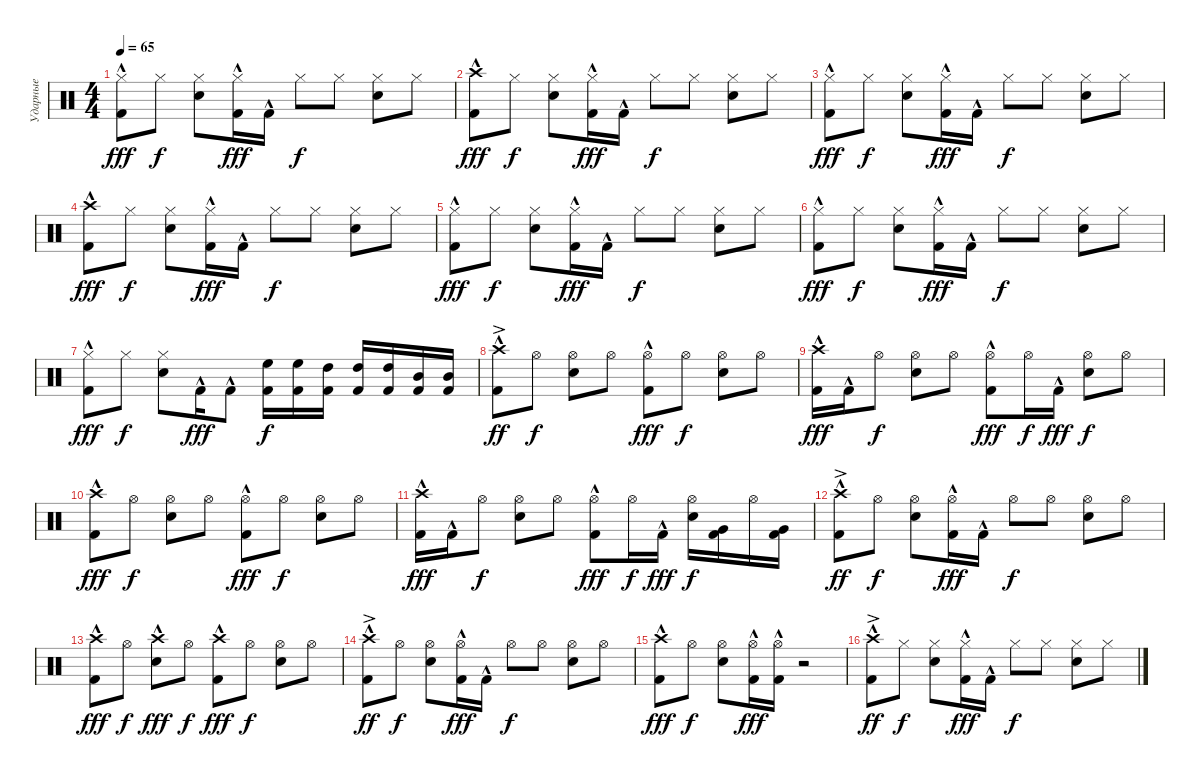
\track ("Ударные" "Ударные") {instrument percussion}
\staff {score}
\articulation defaults
\ts (4 4)
\tempo 65
\clef neutral
\ks c
("Kick (hit) 2"{hac} "Hi-Hat (closed)").8{dy fff} "Hi-Hat (closed)".8{dy f} ("Snare (hit) 2" "Hi-Hat (closed)").8 ("Kick (hit) 2"{hac} "Hi-Hat (closed)").16{dy fff} "Kick (hit) 2"{hac}.16 "Hi-Hat (closed)".8{dy f} "Hi-Hat (closed)".8 ("Snare (hit) 2" "Hi-Hat (closed)").8 "Hi-Hat (closed)".8 |
("Kick (hit) 2"{hac} "Crash high (hit)").8{dy fff} "Hi-Hat (closed)".8{dy f} ("Snare (hit) 2" "Hi-Hat (closed)").8 ("Kick (hit) 2"{hac} "Hi-Hat (closed)").16{dy fff} "Kick (hit) 2"{hac}.16 "Hi-Hat (closed)".8{dy f} "Hi-Hat (closed)".8 ("Snare (hit) 2" "Hi-Hat (closed)").8 "Hi-Hat (closed)".8 |
("Kick (hit) 2"{hac} "Hi-Hat (closed)").8{dy fff} "Hi-Hat (closed)".8{dy f} ("Snare (hit) 2" "Hi-Hat (closed)").8 ("Kick (hit) 2"{hac} "Hi-Hat (closed)").16{dy fff} "Kick (hit) 2"{hac}.16 "Hi-Hat (closed)".8{dy f} "Hi-Hat (closed)".8 ("Snare (hit) 2" "Hi-Hat (closed)").8 "Hi-Hat (closed)".8 |
("Kick (hit) 2"{hac} "Crash high (hit)").8{dy fff} "Hi-Hat (closed)".8{dy f} ("Snare (hit) 2" "Hi-Hat (closed)").8 ("Kick (hit) 2"{hac} "Hi-Hat (closed)").16{dy fff} "Kick (hit) 2"{hac}.16 "Hi-Hat (closed)".8{dy f} "Hi-Hat (closed)".8 ("Snare (hit) 2" "Hi-Hat (closed)").8 "Hi-Hat (closed)".8 |
("Kick (hit) 2"{hac} "Hi-Hat (closed)").8{dy fff} "Hi-Hat (closed)".8{dy f} ("Snare (hit) 2" "Hi-Hat (closed)").8 ("Kick (hit) 2"{hac} "Hi-Hat (closed)").16{dy fff} "Kick (hit) 2"{hac}.16 "Hi-Hat (closed)".8{dy f} "Hi-Hat (closed)".8 ("Snare (hit) 2" "Hi-Hat (closed)").8 "Hi-Hat (closed)".8 |
("Kick (hit) 2"{hac} "Hi-Hat (closed)").8{dy fff} "Hi-Hat (closed)".8{dy f} ("Snare (hit) 2" "Hi-Hat (closed)").8 ("Kick (hit) 2"{hac} "Hi-Hat (closed)").16{dy fff} "Kick (hit) 2"{hac}.16 "Hi-Hat (closed)".8{dy f} "Hi-Hat (closed)".8 ("Snare (hit) 2" "Hi-Hat (closed)").8 "Hi-Hat (closed)".8 |
("Kick (hit) 2"{hac} "Hi-Hat (closed)").8{dy fff} "Hi-Hat (closed)".8{dy f} ("Snare (hit) 2" "Hi-Hat (closed)").8 "Kick (hit) 2"{hac}.16{dy fff} "Kick (hit) 2"{hac}.8 ("Kick (hit) 2" "High Floor Tom (hit)").16{dy f} ("Kick (hit) 2" "High Floor Tom (hit)").16 ("Kick (hit) 2" "High Tom (hit)").16 ("Kick (hit) 2" "High Tom (hit)").16 ("Kick (hit) 2" "High Tom (hit)").16 ("Kick (hit) 2" "Mid Tom (hit)").16 ("Kick (hit) 2" "Mid Tom (hit)").16 |
("Kick (hit) 2"{hac} "Crash high (hit)"{ac}).8{dy ff} "Hi-Hat (open)".8{dy f} ("Snare (hit) 2" "Hi-Hat (open)").8 "Hi-Hat (open)".8 ("Kick (hit) 2"{hac} "Hi-Hat (open)").8{dy fff} "Hi-Hat (open)".8{dy f} ("Snare (hit) 2" "Hi-Hat (open)").8 "Hi-Hat (open)".8 |
("Kick (hit) 2"{hac} "Crash high (hit)").16{dy fff} "Kick (hit) 2"{hac}.16 "Hi-Hat (open)".8{dy f} ("Snare (hit) 2" "Hi-Hat (open)").8 "Hi-Hat (open)".8 ("Kick (hit) 2"{hac} "Hi-Hat (open)").8{dy fff} "Hi-Hat (open)".16{dy f} "Kick (hit) 2"{hac}.16{dy fff} ("Snare (hit) 2" "Hi-Hat (open)").8{dy f} "Hi-Hat (open)".8 |
("Kick (hit) 2"{hac} "Crash high (hit)").8{dy fff} "Hi-Hat (open)".8{dy f} ("Snare (hit) 2" "Hi-Hat (open)").8 "Hi-Hat (open)".8 ("Kick (hit) 2"{hac} "Hi-Hat (open)").8{dy fff} "Hi-Hat (open)".8{dy f} ("Snare (hit) 2" "Hi-Hat (open)").8 "Hi-Hat (open)".8 |
("Kick (hit) 2"{hac} "Crash high (hit)").16{dy fff} "Kick (hit) 2"{hac}.16 "Hi-Hat (open)".8{dy f} ("Snare (hit) 2" "Hi-Hat (open)").8 "Hi-Hat (open)".8 ("Kick (hit) 2"{hac} "Hi-Hat (open)").8{dy fff} "Hi-Hat (open)".16{dy f} "Kick (hit) 2"{hac}.16{dy fff} ("Snare (hit) 2" "Hi-Hat (open)").16{dy f} ("Kick (hit) 2" "Very Low Tom (hit)").16 "Hi-Hat (open)".16 ("Kick (hit) 2" "Very Low Tom (hit)").16 |
("Kick (hit) 2"{hac} "Crash high (hit)"{ac}).8{dy ff} "Hi-Hat (open)".8{dy f} ("Snare (hit) 2" "Hi-Hat (open)").8 ("Kick (hit) 2"{hac} "Hi-Hat (open)").16{dy fff} "Kick (hit) 2"{hac}.16 "Hi-Hat (open)".8{dy f} "Hi-Hat (open)".8 ("Snare (hit) 2" "Hi-Hat (open)").8 "Hi-Hat (open)".8 |
("Kick (hit) 2"{hac} "Crash high (hit)"{hac}).8{dy fff} "Hi-Hat (open)".8{dy f} ("Snare (hit) 2" "Crash high (hit)"{hac}).8{dy fff} "Hi-Hat (open)".8{dy f} ("Kick (hit) 2"{hac} "Crash high (hit)"{hac}).8{dy fff} "Hi-Hat (open)".8{dy f} ("Snare (hit) 2" "Hi-Hat (open)").8 "Hi-Hat (open)".8 |
("Kick (hit) 2"{hac} "Crash high (hit)"{ac}).8{dy ff} "Hi-Hat (open)".8{dy f} ("Snare (hit) 2" "Hi-Hat (open)").8 ("Kick (hit) 2"{hac} "Hi-Hat (open)").16{dy fff} "Kick (hit) 2"{hac}.16 "Hi-Hat (open)".8{dy f} "Hi-Hat (open)".8 ("Snare (hit) 2" "Hi-Hat (open)").8 "Hi-Hat (open)".8 |
("Kick (hit) 2"{hac} "Crash high (hit)").8{dy fff} "Hi-Hat (open)".8{dy f} ("Snare (hit) 2" "Hi-Hat (open)").8 ("Kick (hit) 2"{hac} "Hi-Hat (open)").16{dy fff} ("Kick (hit) 2"{hac} "Hi-Hat (open)").16 r.2 |
("Kick (hit) 2"{hac} "Crash high (hit)"{ac}).8{dy ff} "Hi-Hat (closed)".8{dy f} ("Snare (hit) 2" "Hi-Hat (closed)").8 ("Kick (hit) 2"{hac} "Hi-Hat (closed)").16{dy fff} "Kick (hit) 2"{hac}.16 "Hi-Hat (closed)".8{dy f} "Hi-Hat (closed)".8 ("Snare (hit) 2" "Hi-Hat (closed)").8 "Hi-Hat (closed)".8
